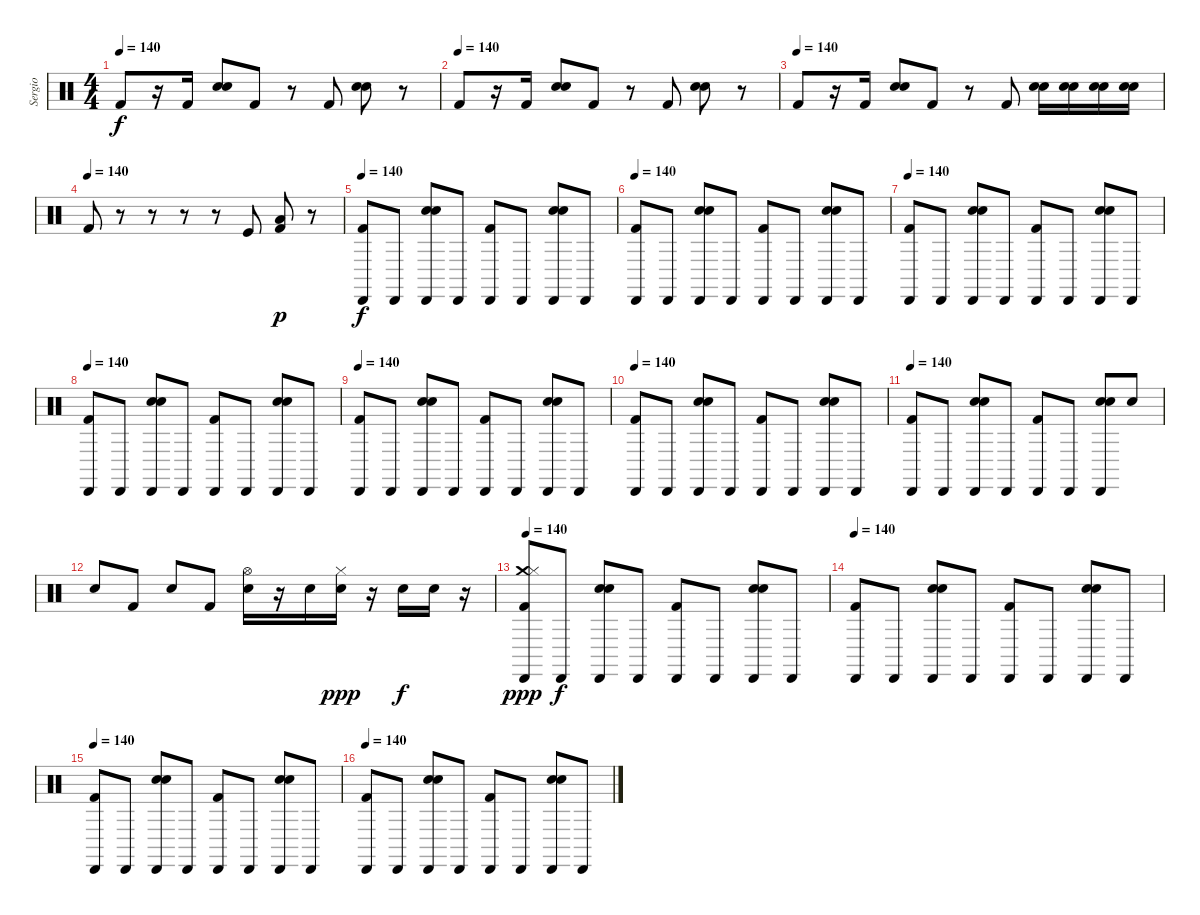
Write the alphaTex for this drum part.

\track ("Sergio" "Sergio") {instrument percussion}
\staff {score}
\articulation defaults
\ts (4 4)
\tempo 140
\clef neutral
\ks c "Kick (hit) 2".8{dy f}
r.16 "Kick (hit) 2".16 ("Snare (hit) 2" "Snare (hit) 2").8 "Kick (hit) 2".8 r.8 "Kick (hit) 2".8 ("Snare (hit) 2" "Snare (hit) 2").8 r.8 |
\tempo (140)
"Kick (hit) 2".8 r.16 "Kick (hit) 2".16 ("Snare (hit) 2" "Snare (hit) 2").8 "Kick (hit) 2".8 r.8 "Kick (hit) 2".8 ("Snare (hit) 2" "Snare (hit) 2").8 r.8 |
\tempo (140)
"Kick (hit) 2".8 r.16 "Kick (hit) 2".16 ("Snare (hit) 2" "Snare (hit) 2").8 "Kick (hit) 2".8 r.8 "Kick (hit) 2".8 ("Snare (hit) 2" "Snare (hit) 2").16 ("Snare (hit) 2" "Snare (hit) 2").16 ("Snare (hit) 2" "Snare (hit) 2").16 ("Snare (hit) 2" "Snare (hit) 2").16 |
\tempo 150
\tempo (140)
"Kick (hit) 2".8 r.8 r.8 r.8 r.8 "Kick (hit)".8 ("Kick (hit) 2" "Low Floor Tom (hit)").8{dy p} r.8 |
\tempo 140
("Kick (hit) 2" "Cabasa (hit)").8{dy f} "Cabasa (hit)".8 ("Snare (hit) 2" "Cabasa (hit)" "Snare (hit) 2").8 "Cabasa (hit)".8 ("Kick (hit) 2" "Cabasa (hit)").8 "Cabasa (hit)".8 ("Snare (hit) 2" "Cabasa (hit)" "Snare (hit) 2").8 "Cabasa (hit)".8 |
\tempo 140
("Kick (hit) 2" "Cabasa (hit)").8 "Cabasa (hit)".8 ("Snare (hit) 2" "Cabasa (hit)" "Snare (hit) 2").8 "Cabasa (hit)".8 ("Kick (hit) 2" "Cabasa (hit)").8 "Cabasa (hit)".8 ("Snare (hit) 2" "Cabasa (hit)" "Snare (hit) 2").8 "Cabasa (hit)".8 |
\tempo 140
("Kick (hit) 2" "Cabasa (hit)").8 "Cabasa (hit)".8 ("Snare (hit) 2" "Cabasa (hit)" "Snare (hit) 2").8 "Cabasa (hit)".8 ("Kick (hit) 2" "Cabasa (hit)").8 "Cabasa (hit)".8 ("Snare (hit) 2" "Cabasa (hit)" "Snare (hit) 2").8 "Cabasa (hit)".8 |
\tempo 140
("Kick (hit) 2" "Cabasa (hit)").8 "Cabasa (hit)".8 ("Snare (hit) 2" "Cabasa (hit)" "Snare (hit) 2").8 "Cabasa (hit)".8 ("Kick (hit) 2" "Cabasa (hit)").8 "Cabasa (hit)".8 ("Snare (hit) 2" "Cabasa (hit)" "Snare (hit) 2").8 "Cabasa (hit)".8 |
\tempo 140
("Kick (hit) 2" "Cabasa (hit)").8 "Cabasa (hit)".8 ("Snare (hit) 2" "Cabasa (hit)" "Snare (hit) 2").8 "Cabasa (hit)".8 ("Kick (hit) 2" "Cabasa (hit)").8 "Cabasa (hit)".8 ("Snare (hit) 2" "Cabasa (hit)" "Snare (hit) 2").8 "Cabasa (hit)".8 |
\tempo 140
("Kick (hit) 2" "Cabasa (hit)").8 "Cabasa (hit)".8 ("Snare (hit) 2" "Cabasa (hit)" "Snare (hit) 2").8 "Cabasa (hit)".8 ("Kick (hit) 2" "Cabasa (hit)").8 "Cabasa (hit)".8 ("Snare (hit) 2" "Cabasa (hit)" "Snare (hit) 2").8 "Cabasa (hit)".8 |
\tempo 140
("Kick (hit) 2" "Cabasa (hit)").8 "Cabasa (hit)".8 ("Snare (hit) 2" "Cabasa (hit)" "Snare (hit) 2").8 "Cabasa (hit)".8 ("Kick (hit) 2" "Cabasa (hit)").8 "Cabasa (hit)".8 ("Snare (hit) 2" "Cabasa (hit)" "Snare (hit) 2").8 "Snare (hit) 2".8 |
"Snare (hit) 2".8 "Kick (hit) 2".8 "Snare (hit) 2".8 "Kick (hit) 2".8 ("Snare (hit) 2" "Hi-Hat (open)").16 r.16 "Snare (hit) 2".16 ("Snare (hit) 2" "Hi-Hat (closed)").16{dy ppp} r.16 "Snare (hit) 2".16{dy f} "Snare (hit) 2".16 r.16 |
\tempo 140
("Kick (hit) 2" "Cabasa (hit)" "Crash medium (hit)" "Hi-Hat (closed)").8{dy ppp} "Cabasa (hit)".8{dy f} ("Snare (hit) 2" "Cabasa (hit)" "Snare (hit) 2").8 "Cabasa (hit)".8 ("Kick (hit) 2" "Cabasa (hit)").8 "Cabasa (hit)".8 ("Snare (hit) 2" "Cabasa (hit)" "Snare (hit) 2").8 "Cabasa (hit)".8 |
\tempo 140
("Kick (hit) 2" "Cabasa (hit)").8 "Cabasa (hit)".8 ("Snare (hit) 2" "Cabasa (hit)" "Snare (hit) 2").8 "Cabasa (hit)".8 ("Kick (hit) 2" "Cabasa (hit)").8 "Cabasa (hit)".8 ("Snare (hit) 2" "Cabasa (hit)" "Snare (hit) 2").8 "Cabasa (hit)".8 |
\tempo 140
("Kick (hit) 2" "Cabasa (hit)").8 "Cabasa (hit)".8 ("Snare (hit) 2" "Cabasa (hit)" "Snare (hit) 2").8 "Cabasa (hit)".8 ("Kick (hit) 2" "Cabasa (hit)").8 "Cabasa (hit)".8 ("Snare (hit) 2" "Cabasa (hit)" "Snare (hit) 2").8 "Cabasa (hit)".8 |
\tempo 140
("Kick (hit) 2" "Cabasa (hit)").8 "Cabasa (hit)".8 ("Snare (hit) 2" "Cabasa (hit)" "Snare (hit) 2").8 "Cabasa (hit)".8 ("Kick (hit) 2" "Cabasa (hit)").8 "Cabasa (hit)".8 ("Snare (hit) 2" "Cabasa (hit)" "Snare (hit) 2").8 "Cabasa (hit)".8
